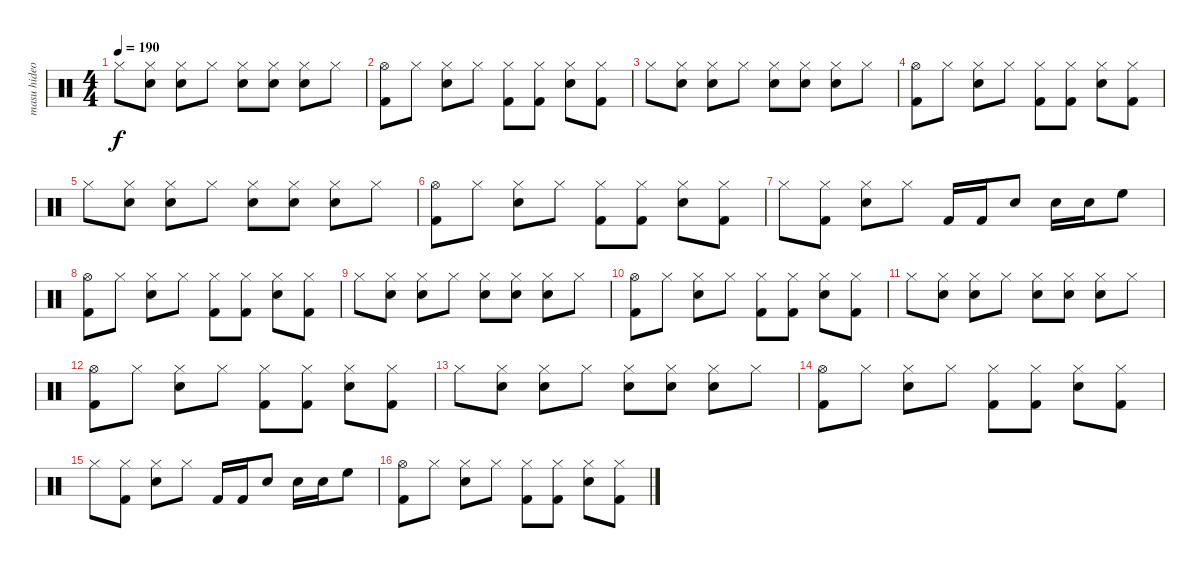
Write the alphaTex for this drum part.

\track ("masu hideo" "masu hideo") {instrument percussion}
\staff {score}
\articulation defaults
\ts (4 4)
\tempo 190
\clef neutral
\ks c "Hi-Hat (closed)".8{dy f}
("Hi-Hat (closed)" "Snare (hit) 2").8 ("Hi-Hat (closed)" "Snare (hit) 2").8 "Hi-Hat (closed)".8 ("Hi-Hat (closed)" "Snare (hit) 2").8 ("Hi-Hat (closed)" "Snare (hit) 2").8 ("Hi-Hat (closed)" "Snare (hit) 2").8 "Hi-Hat (closed)".8 |
("Hi-Hat (open)" "Kick (hit) 2").8 "Hi-Hat (closed)".8 ("Hi-Hat (closed)" "Snare (hit) 2").8 "Hi-Hat (closed)".8 ("Hi-Hat (closed)" "Kick (hit) 2").8 ("Hi-Hat (closed)" "Kick (hit) 2").8 ("Hi-Hat (closed)" "Snare (hit) 2").8 ("Hi-Hat (closed)" "Kick (hit) 2").8 |
"Hi-Hat (closed)".8 ("Hi-Hat (closed)" "Snare (hit) 2").8 ("Hi-Hat (closed)" "Snare (hit) 2").8 "Hi-Hat (closed)".8 ("Hi-Hat (closed)" "Snare (hit) 2").8 ("Hi-Hat (closed)" "Snare (hit) 2").8 ("Hi-Hat (closed)" "Snare (hit) 2").8 "Hi-Hat (closed)".8 |
("Hi-Hat (open)" "Kick (hit) 2").8 "Hi-Hat (closed)".8 ("Hi-Hat (closed)" "Snare (hit) 2").8 "Hi-Hat (closed)".8 ("Hi-Hat (closed)" "Kick (hit) 2").8 ("Hi-Hat (closed)" "Kick (hit) 2").8 ("Hi-Hat (closed)" "Snare (hit) 2").8 ("Hi-Hat (closed)" "Kick (hit) 2").8 |
"Hi-Hat (closed)".8 ("Hi-Hat (closed)" "Snare (hit) 2").8 ("Hi-Hat (closed)" "Snare (hit) 2").8 "Hi-Hat (closed)".8 ("Hi-Hat (closed)" "Snare (hit) 2").8 ("Hi-Hat (closed)" "Snare (hit) 2").8 ("Hi-Hat (closed)" "Snare (hit) 2").8 "Hi-Hat (closed)".8 |
("Hi-Hat (open)" "Kick (hit) 2").8 "Hi-Hat (closed)".8 ("Hi-Hat (closed)" "Snare (hit) 2").8 "Hi-Hat (closed)".8 ("Hi-Hat (closed)" "Kick (hit) 2").8 ("Hi-Hat (closed)" "Kick (hit) 2").8 ("Hi-Hat (closed)" "Snare (hit) 2").8 ("Hi-Hat (closed)" "Kick (hit) 2").8 |
"Hi-Hat (closed)".8 ("Hi-Hat (closed)" "Kick (hit) 2").8 ("Hi-Hat (closed)" "Snare (hit) 2").8 "Hi-Hat (closed)".8 "Kick (hit) 2".16 "Kick (hit) 2".16 "Snare (hit) 2".8 "Snare (hit) 2".16 "Snare (hit) 2".16 "High Floor Tom (hit)".8 |
("Hi-Hat (open)" "Kick (hit) 2").8 "Hi-Hat (closed)".8 ("Hi-Hat (closed)" "Snare (hit) 2").8 "Hi-Hat (closed)".8 ("Hi-Hat (closed)" "Kick (hit) 2").8 ("Hi-Hat (closed)" "Kick (hit) 2").8 ("Hi-Hat (closed)" "Snare (hit) 2").8 ("Hi-Hat (closed)" "Kick (hit) 2").8 |
"Hi-Hat (closed)".8 ("Hi-Hat (closed)" "Snare (hit) 2").8 ("Hi-Hat (closed)" "Snare (hit) 2").8 "Hi-Hat (closed)".8 ("Hi-Hat (closed)" "Snare (hit) 2").8 ("Hi-Hat (closed)" "Snare (hit) 2").8 ("Hi-Hat (closed)" "Snare (hit) 2").8 "Hi-Hat (closed)".8 |
("Hi-Hat (open)" "Kick (hit) 2").8 "Hi-Hat (closed)".8 ("Hi-Hat (closed)" "Snare (hit) 2").8 "Hi-Hat (closed)".8 ("Hi-Hat (closed)" "Kick (hit) 2").8 ("Hi-Hat (closed)" "Kick (hit) 2").8 ("Hi-Hat (closed)" "Snare (hit) 2").8 ("Hi-Hat (closed)" "Kick (hit) 2").8 |
"Hi-Hat (closed)".8 ("Hi-Hat (closed)" "Snare (hit) 2").8 ("Hi-Hat (closed)" "Snare (hit) 2").8 "Hi-Hat (closed)".8 ("Hi-Hat (closed)" "Snare (hit) 2").8 ("Hi-Hat (closed)" "Snare (hit) 2").8 ("Hi-Hat (closed)" "Snare (hit) 2").8 "Hi-Hat (closed)".8 |
("Hi-Hat (open)" "Kick (hit) 2").8 "Hi-Hat (closed)".8 ("Hi-Hat (closed)" "Snare (hit) 2").8 "Hi-Hat (closed)".8 ("Hi-Hat (closed)" "Kick (hit) 2").8 ("Hi-Hat (closed)" "Kick (hit) 2").8 ("Hi-Hat (closed)" "Snare (hit) 2").8 ("Hi-Hat (closed)" "Kick (hit) 2").8 |
"Hi-Hat (closed)".8 ("Hi-Hat (closed)" "Snare (hit) 2").8 ("Hi-Hat (closed)" "Snare (hit) 2").8 "Hi-Hat (closed)".8 ("Hi-Hat (closed)" "Snare (hit) 2").8 ("Hi-Hat (closed)" "Snare (hit) 2").8 ("Hi-Hat (closed)" "Snare (hit) 2").8 "Hi-Hat (closed)".8 |
("Hi-Hat (open)" "Kick (hit) 2").8 "Hi-Hat (closed)".8 ("Hi-Hat (closed)" "Snare (hit) 2").8 "Hi-Hat (closed)".8 ("Hi-Hat (closed)" "Kick (hit) 2").8 ("Hi-Hat (closed)" "Kick (hit) 2").8 ("Hi-Hat (closed)" "Snare (hit) 2").8 ("Hi-Hat (closed)" "Kick (hit) 2").8 |
"Hi-Hat (closed)".8 ("Hi-Hat (closed)" "Kick (hit) 2").8 ("Hi-Hat (closed)" "Snare (hit) 2").8 "Hi-Hat (closed)".8 "Kick (hit) 2".16 "Kick (hit) 2".16 "Snare (hit) 2".8 "Snare (hit) 2".16 "Snare (hit) 2".16 "High Floor Tom (hit)".8 |
("Hi-Hat (open)" "Kick (hit) 2").8 "Hi-Hat (closed)".8 ("Hi-Hat (closed)" "Snare (hit) 2").8 "Hi-Hat (closed)".8 ("Hi-Hat (closed)" "Kick (hit) 2").8 ("Hi-Hat (closed)" "Kick (hit) 2").8 ("Hi-Hat (closed)" "Snare (hit) 2").8 ("Hi-Hat (closed)" "Kick (hit) 2").8
